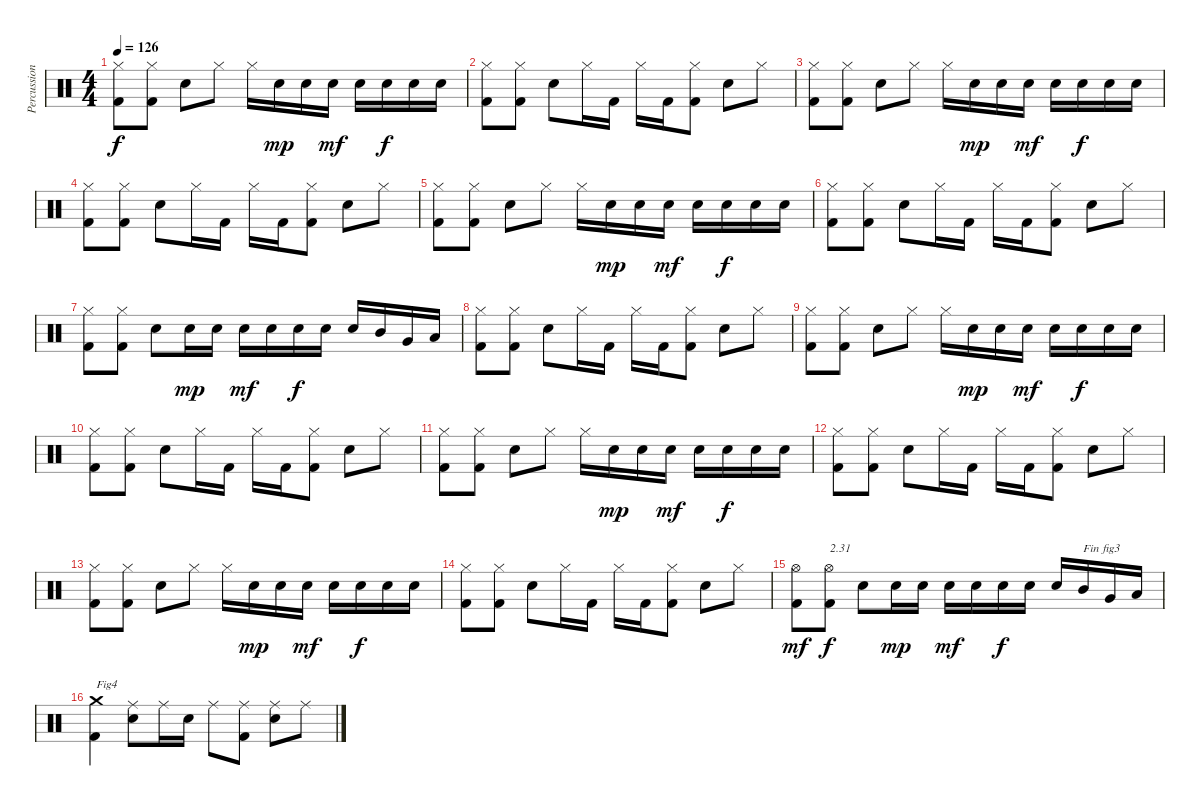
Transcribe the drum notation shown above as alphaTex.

\track ("Percussions" "Percussion") {instrument percussion}
\staff {score}
\articulation defaults
\ts (4 4)
\tempo 126
\clef neutral
\ks c
("Kick (hit) 2" "Hi-Hat (closed)").8{dy f} ("Kick (hit) 2" "Hi-Hat (closed)").8 "Electric Snare (hit)".8 "Hi-Hat (closed)".8 "Hi-Hat (closed)".16 "Electric Snare (hit)".16{dy mp} "Electric Snare (hit)".16 "Electric Snare (hit)".16{dy mf} "Electric Snare (hit)".16 "Electric Snare (hit)".16{dy f} "Electric Snare (hit)".16 "Electric Snare (hit)".16 |
("Kick (hit) 2" "Hi-Hat (closed)").8 ("Kick (hit) 2" "Hi-Hat (closed)").8 "Electric Snare (hit)".8 "Hi-Hat (closed)".16 "Kick (hit) 2".16 "Hi-Hat (closed)".16 "Kick (hit) 2".16 ("Kick (hit) 2" "Hi-Hat (closed)").8 "Electric Snare (hit)".8 "Hi-Hat (closed)".8 |
("Kick (hit) 2" "Hi-Hat (closed)").8 ("Kick (hit) 2" "Hi-Hat (closed)").8 "Electric Snare (hit)".8 "Hi-Hat (closed)".8 "Hi-Hat (closed)".16 "Electric Snare (hit)".16{dy mp} "Electric Snare (hit)".16 "Electric Snare (hit)".16{dy mf} "Electric Snare (hit)".16 "Electric Snare (hit)".16{dy f} "Electric Snare (hit)".16 "Electric Snare (hit)".16 |
("Kick (hit) 2" "Hi-Hat (closed)").8 ("Kick (hit) 2" "Hi-Hat (closed)").8 "Electric Snare (hit)".8 "Hi-Hat (closed)".16 "Kick (hit) 2".16 "Hi-Hat (closed)".16 "Kick (hit) 2".16 ("Kick (hit) 2" "Hi-Hat (closed)").8 "Electric Snare (hit)".8 "Hi-Hat (closed)".8 |
("Kick (hit) 2" "Hi-Hat (closed)").8 ("Kick (hit) 2" "Hi-Hat (closed)").8 "Electric Snare (hit)".8 "Hi-Hat (closed)".8 "Hi-Hat (closed)".16 "Electric Snare (hit)".16{dy mp} "Electric Snare (hit)".16 "Electric Snare (hit)".16{dy mf} "Electric Snare (hit)".16 "Electric Snare (hit)".16{dy f} "Electric Snare (hit)".16 "Electric Snare (hit)".16 |
("Kick (hit) 2" "Hi-Hat (closed)").8 ("Kick (hit) 2" "Hi-Hat (closed)").8 "Electric Snare (hit)".8 "Hi-Hat (closed)".16 "Kick (hit) 2".16 "Hi-Hat (closed)".16 "Kick (hit) 2".16 ("Kick (hit) 2" "Hi-Hat (closed)").8 "Electric Snare (hit)".8 "Hi-Hat (closed)".8 |
("Kick (hit) 2" "Hi-Hat (closed)").8 ("Kick (hit) 2" "Hi-Hat (closed)").8 "Electric Snare (hit)".8 "Electric Snare (hit)".16{dy mp} "Electric Snare (hit)".16 "Electric Snare (hit)".16{dy mf} "Electric Snare (hit)".16 "Electric Snare (hit)".16{dy f} "Electric Snare (hit)".16 "Electric Snare (hit)".16 "Mid Tom (hit)".16 "Very Low Tom (hit)".16 "Low Floor Tom (hit)".16 |
("Kick (hit) 2" "Hi-Hat (closed)").8 ("Kick (hit) 2" "Hi-Hat (closed)").8 "Electric Snare (hit)".8 "Hi-Hat (closed)".16 "Kick (hit) 2".16 "Hi-Hat (closed)".16 "Kick (hit) 2".16 ("Kick (hit) 2" "Hi-Hat (closed)").8 "Electric Snare (hit)".8 "Hi-Hat (closed)".8 |
("Kick (hit) 2" "Hi-Hat (closed)").8 ("Kick (hit) 2" "Hi-Hat (closed)").8 "Electric Snare (hit)".8 "Hi-Hat (closed)".8 "Hi-Hat (closed)".16 "Electric Snare (hit)".16{dy mp} "Electric Snare (hit)".16 "Electric Snare (hit)".16{dy mf} "Electric Snare (hit)".16 "Electric Snare (hit)".16{dy f} "Electric Snare (hit)".16 "Electric Snare (hit)".16 |
("Kick (hit) 2" "Hi-Hat (closed)").8 ("Kick (hit) 2" "Hi-Hat (closed)").8 "Electric Snare (hit)".8 "Hi-Hat (closed)".16 "Kick (hit) 2".16 "Hi-Hat (closed)".16 "Kick (hit) 2".16 ("Kick (hit) 2" "Hi-Hat (closed)").8 "Electric Snare (hit)".8 "Hi-Hat (closed)".8 |
("Kick (hit) 2" "Hi-Hat (closed)").8 ("Kick (hit) 2" "Hi-Hat (closed)").8 "Electric Snare (hit)".8 "Hi-Hat (closed)".8 "Hi-Hat (closed)".16 "Electric Snare (hit)".16{dy mp} "Electric Snare (hit)".16 "Electric Snare (hit)".16{dy mf} "Electric Snare (hit)".16 "Electric Snare (hit)".16{dy f} "Electric Snare (hit)".16 "Electric Snare (hit)".16 |
("Kick (hit) 2" "Hi-Hat (closed)").8 ("Kick (hit) 2" "Hi-Hat (closed)").8 "Electric Snare (hit)".8 "Hi-Hat (closed)".16 "Kick (hit) 2".16 "Hi-Hat (closed)".16 "Kick (hit) 2".16 ("Kick (hit) 2" "Hi-Hat (closed)").8 "Electric Snare (hit)".8 "Hi-Hat (closed)".8 |
("Kick (hit) 2" "Hi-Hat (closed)").8 ("Kick (hit) 2" "Hi-Hat (closed)").8 "Electric Snare (hit)".8 "Hi-Hat (closed)".8 "Hi-Hat (closed)".16 "Electric Snare (hit)".16{dy mp} "Electric Snare (hit)".16 "Electric Snare (hit)".16{dy mf} "Electric Snare (hit)".16 "Electric Snare (hit)".16{dy f} "Electric Snare (hit)".16 "Electric Snare (hit)".16 |
("Kick (hit) 2" "Hi-Hat (closed)").8 ("Kick (hit) 2" "Hi-Hat (closed)").8 "Electric Snare (hit)".8 "Hi-Hat (closed)".16 "Kick (hit) 2".16 "Hi-Hat (closed)".16 "Kick (hit) 2".16 ("Kick (hit) 2" "Hi-Hat (closed)").8 "Electric Snare (hit)".8 "Hi-Hat (closed)".8 |
("Kick (hit) 2" "Hi-Hat (open)").8{dy mf} ("Kick (hit) 2" "Hi-Hat (open)").8{txt "2.31" dy f} "Electric Snare (hit)".8 "Electric Snare (hit)".16{dy mp} "Electric Snare (hit)".16 "Electric Snare (hit)".16{dy mf} "Electric Snare (hit)".16 "Electric Snare (hit)".16{dy f} "Electric Snare (hit)".16 "Electric Snare (hit)".16 "Mid Tom (hit)".16{txt "Fin fig3"} "Very Low Tom (hit)".16 "Low Floor Tom (hit)".16 |
("Kick (hit) 2" "Crash medium (hit)").4{txt "Fig4"} ("Electric Snare (hit)" "Ride (middle)").8 "Ride (middle)".16 "Electric Snare (hit)".16 "Ride (middle)".8 ("Kick (hit) 2" "Ride (middle)").8 ("Electric Snare (hit)" "Ride (middle)").8 "Ride (middle)".8
